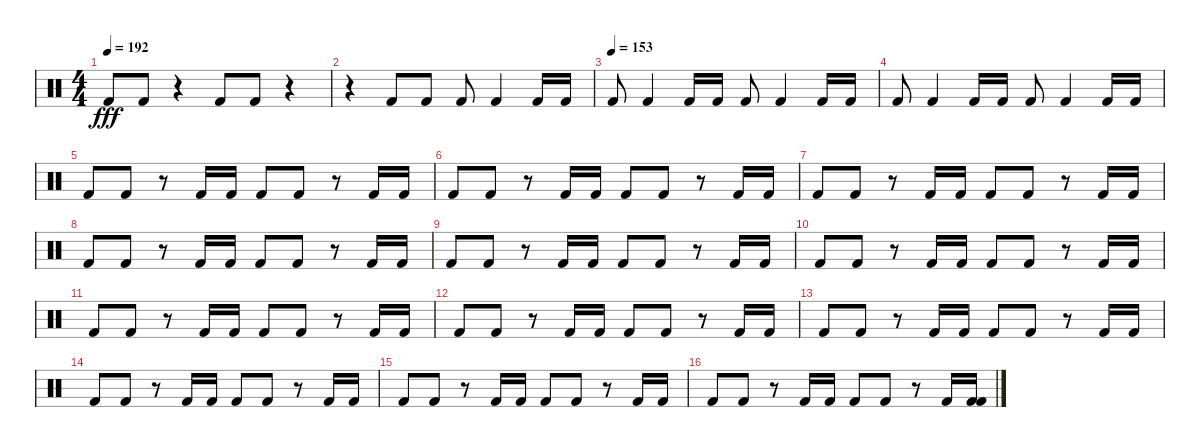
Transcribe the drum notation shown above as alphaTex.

\track "" {instrument percussion}
\staff {score}
\articulation defaults
\ts (4 4)
\tempo 192
\clef neutral
\ks c "Kick (hit) 2".8{dy fff} "Kick (hit) 2".8
r.4 "Kick (hit) 2".8 "Kick (hit) 2".8 r.4 |
r.4 "Kick (hit) 2".8 "Kick (hit) 2".8 "Kick (hit) 2".8 "Kick (hit) 2".4 "Kick (hit) 2".16 "Kick (hit) 2".16 |
\tempo (153)
"Kick (hit) 2".8 "Kick (hit) 2".4 "Kick (hit) 2".16 "Kick (hit) 2".16 "Kick (hit) 2".8 "Kick (hit) 2".4 "Kick (hit) 2".16 "Kick (hit) 2".16 |
"Kick (hit) 2".8 "Kick (hit) 2".4 "Kick (hit) 2".16 "Kick (hit) 2".16 "Kick (hit) 2".8 "Kick (hit) 2".4 "Kick (hit) 2".16 "Kick (hit) 2".16 |
"Kick (hit) 2".8 "Kick (hit) 2".8 r.8 "Kick (hit) 2".16 "Kick (hit) 2".16 "Kick (hit) 2".8 "Kick (hit) 2".8 r.8 "Kick (hit) 2".16 "Kick (hit) 2".16 |
"Kick (hit) 2".8 "Kick (hit) 2".8 r.8 "Kick (hit) 2".16 "Kick (hit) 2".16 "Kick (hit) 2".8 "Kick (hit) 2".8 r.8 "Kick (hit) 2".16 "Kick (hit) 2".16 |
"Kick (hit) 2".8 "Kick (hit) 2".8 r.8 "Kick (hit) 2".16 "Kick (hit) 2".16 "Kick (hit) 2".8 "Kick (hit) 2".8 r.8 "Kick (hit) 2".16 "Kick (hit) 2".16 |
"Kick (hit) 2".8 "Kick (hit) 2".8 r.8 "Kick (hit) 2".16 "Kick (hit) 2".16 "Kick (hit) 2".8 "Kick (hit) 2".8 r.8 "Kick (hit) 2".16 "Kick (hit) 2".16 |
"Kick (hit) 2".8 "Kick (hit) 2".8 r.8 "Kick (hit) 2".16 "Kick (hit) 2".16 "Kick (hit) 2".8 "Kick (hit) 2".8 r.8 "Kick (hit) 2".16 "Kick (hit) 2".16 |
"Kick (hit) 2".8 "Kick (hit) 2".8 r.8 "Kick (hit) 2".16 "Kick (hit) 2".16 "Kick (hit) 2".8 "Kick (hit) 2".8 r.8 "Kick (hit) 2".16 "Kick (hit) 2".16 |
"Kick (hit) 2".8 "Kick (hit) 2".8 r.8 "Kick (hit) 2".16 "Kick (hit) 2".16 "Kick (hit) 2".8 "Kick (hit) 2".8 r.8 "Kick (hit) 2".16 "Kick (hit) 2".16 |
"Kick (hit) 2".8 "Kick (hit) 2".8 r.8 "Kick (hit) 2".16 "Kick (hit) 2".16 "Kick (hit) 2".8 "Kick (hit) 2".8 r.8 "Kick (hit) 2".16 "Kick (hit) 2".16 |
"Kick (hit) 2".8 "Kick (hit) 2".8 r.8 "Kick (hit) 2".16 "Kick (hit) 2".16 "Kick (hit) 2".8 "Kick (hit) 2".8 r.8 "Kick (hit) 2".16 "Kick (hit) 2".16 |
"Kick (hit) 2".8 "Kick (hit) 2".8 r.8 "Kick (hit) 2".16 "Kick (hit) 2".16 "Kick (hit) 2".8 "Kick (hit) 2".8 r.8 "Kick (hit) 2".16 "Kick (hit) 2".16 |
"Kick (hit) 2".8 "Kick (hit) 2".8 r.8 "Kick (hit) 2".16 "Kick (hit) 2".16 "Kick (hit) 2".8 "Kick (hit) 2".8 r.8 "Kick (hit) 2".16 "Kick (hit) 2".16 |
"Kick (hit) 2".8 "Kick (hit) 2".8 r.8 "Kick (hit) 2".16 "Kick (hit) 2".16 "Kick (hit) 2".8 "Kick (hit) 2".8 r.8 "Kick (hit) 2".16 ("Kick (hit) 2" "Kick (hit) 2").16
